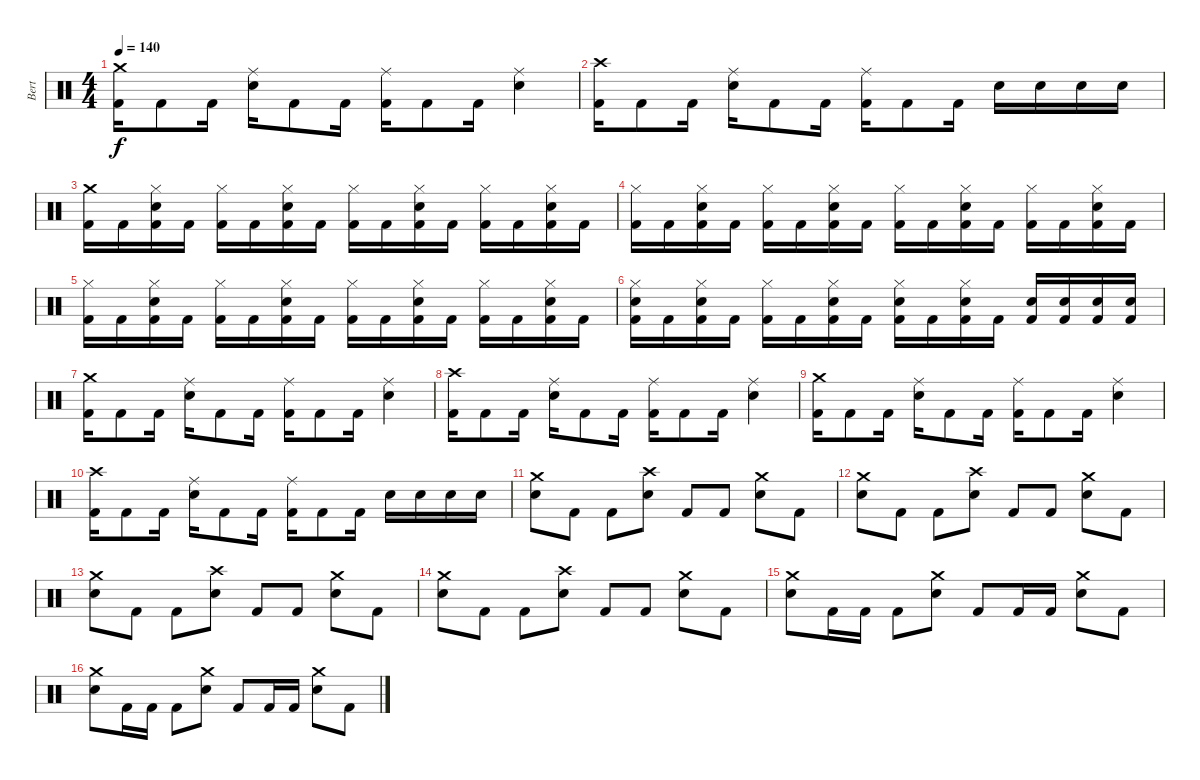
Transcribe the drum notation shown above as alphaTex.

\track ("Bert" "Bert") {instrument percussion}
\staff {score}
\articulation defaults
\ts (4 4)
\tempo 140
\clef neutral
\ks c
("Crash medium (hit)" "Kick (hit) 2").16{dy f} "Kick (hit) 2".8 "Kick (hit) 2".16 ("Ride (middle)" "Snare (hit) 2").16 "Kick (hit) 2".8 "Kick (hit) 2".16 ("Ride (middle)" "Kick (hit) 2").16 "Kick (hit) 2".8 "Kick (hit) 2".16 ("Ride (middle)" "Snare (hit) 2").4 |
("Crash high (hit)" "Kick (hit) 2").16 "Kick (hit) 2".8 "Kick (hit) 2".16 ("Ride (middle)" "Snare (hit) 2").16 "Kick (hit) 2".8 "Kick (hit) 2".16 ("Ride (middle)" "Kick (hit) 2").16 "Kick (hit) 2".8 "Kick (hit) 2".16 "Snare (hit) 2".16 "Snare (hit) 2".16 "Snare (hit) 2".16 "Snare (hit) 2".16 |
("Crash medium (hit)" "Kick (hit) 2").16 "Kick (hit) 2".16 ("Hi-Hat (closed)" "Snare (hit) 2" "Kick (hit) 2").16 "Kick (hit) 2".16 ("Hi-Hat (closed)" "Kick (hit) 2").16 "Kick (hit) 2".16 ("Hi-Hat (closed)" "Snare (hit) 2" "Kick (hit) 2").16 "Kick (hit) 2".16 ("Hi-Hat (closed)" "Kick (hit) 2").16 "Kick (hit) 2".16 ("Hi-Hat (closed)" "Snare (hit) 2" "Kick (hit) 2").16 "Kick (hit) 2".16 ("Hi-Hat (closed)" "Kick (hit) 2").16 "Kick (hit) 2".16 ("Hi-Hat (closed)" "Snare (hit) 2" "Kick (hit) 2").16 "Kick (hit) 2".16 |
("Hi-Hat (closed)" "Kick (hit) 2").16 "Kick (hit) 2".16 ("Hi-Hat (closed)" "Snare (hit) 2" "Kick (hit) 2").16 "Kick (hit) 2".16 ("Hi-Hat (closed)" "Kick (hit) 2").16 "Kick (hit) 2".16 ("Hi-Hat (closed)" "Snare (hit) 2" "Kick (hit) 2").16 "Kick (hit) 2".16 ("Hi-Hat (closed)" "Kick (hit) 2").16 "Kick (hit) 2".16 ("Hi-Hat (closed)" "Snare (hit) 2" "Kick (hit) 2").16 "Kick (hit) 2".16 ("Hi-Hat (closed)" "Kick (hit) 2").16 "Kick (hit) 2".16 ("Hi-Hat (closed)" "Snare (hit) 2" "Kick (hit) 2").16 "Kick (hit) 2".16 |
("Hi-Hat (closed)" "Kick (hit) 2").16 "Kick (hit) 2".16 ("Hi-Hat (closed)" "Snare (hit) 2" "Kick (hit) 2").16 "Kick (hit) 2".16 ("Hi-Hat (closed)" "Kick (hit) 2").16 "Kick (hit) 2".16 ("Hi-Hat (closed)" "Snare (hit) 2" "Kick (hit) 2").16 "Kick (hit) 2".16 ("Hi-Hat (closed)" "Kick (hit) 2").16 "Kick (hit) 2".16 ("Hi-Hat (closed)" "Snare (hit) 2" "Kick (hit) 2").16 "Kick (hit) 2".16 ("Hi-Hat (closed)" "Kick (hit) 2").16 "Kick (hit) 2".16 ("Hi-Hat (closed)" "Snare (hit) 2" "Kick (hit) 2").16 "Kick (hit) 2".16 |
("Hi-Hat (closed)" "Snare (hit) 2" "Kick (hit) 2").16 "Kick (hit) 2".16 ("Hi-Hat (closed)" "Snare (hit) 2" "Kick (hit) 2").16 "Kick (hit) 2".16 ("Hi-Hat (closed)" "Kick (hit) 2").16 "Kick (hit) 2".16 ("Hi-Hat (closed)" "Snare (hit) 2" "Kick (hit) 2").16 "Kick (hit) 2".16 ("Hi-Hat (closed)" "Snare (hit) 2" "Kick (hit) 2").16 "Kick (hit) 2".16 ("Hi-Hat (closed)" "Snare (hit) 2" "Kick (hit) 2").16 "Kick (hit) 2".16 ("Snare (hit) 2" "Kick (hit) 2").16 ("Snare (hit) 2" "Kick (hit) 2").16 ("Snare (hit) 2" "Kick (hit) 2").16 ("Snare (hit) 2" "Kick (hit) 2").16 |
("Crash medium (hit)" "Kick (hit) 2").16 "Kick (hit) 2".8 "Kick (hit) 2".16 ("Ride (middle)" "Snare (hit) 2").16 "Kick (hit) 2".8 "Kick (hit) 2".16 ("Ride (middle)" "Kick (hit) 2").16 "Kick (hit) 2".8 "Kick (hit) 2".16 ("Ride (middle)" "Snare (hit) 2").4 |
("Crash high (hit)" "Kick (hit) 2").16 "Kick (hit) 2".8 "Kick (hit) 2".16 ("Ride (middle)" "Snare (hit) 2").16 "Kick (hit) 2".8 "Kick (hit) 2".16 ("Ride (middle)" "Kick (hit) 2").16 "Kick (hit) 2".8 "Kick (hit) 2".16 ("Ride (middle)" "Snare (hit) 2").4 |
("Crash medium (hit)" "Kick (hit) 2").16 "Kick (hit) 2".8 "Kick (hit) 2".16 ("Ride (middle)" "Snare (hit) 2").16 "Kick (hit) 2".8 "Kick (hit) 2".16 ("Ride (middle)" "Kick (hit) 2").16 "Kick (hit) 2".8 "Kick (hit) 2".16 ("Ride (middle)" "Snare (hit) 2").4 |
("Crash high (hit)" "Kick (hit) 2").16 "Kick (hit) 2".8 "Kick (hit) 2".16 ("Ride (middle)" "Snare (hit) 2").16 "Kick (hit) 2".8 "Kick (hit) 2".16 ("Ride (middle)" "Kick (hit) 2").16 "Kick (hit) 2".8 "Kick (hit) 2".16 "Snare (hit) 2".16 "Snare (hit) 2".16 "Snare (hit) 2".16 "Snare (hit) 2".16 |
("Crash medium (hit)" "Snare (hit) 2").8 "Kick (hit) 2".8 "Kick (hit) 2".8 ("Crash high (hit)" "Snare (hit) 2").8 "Kick (hit) 2".8 "Kick (hit) 2".8 ("Crash medium (hit)" "Snare (hit) 2").8 "Kick (hit) 2".8 |
("Crash medium (hit)" "Snare (hit) 2").8 "Kick (hit) 2".8 "Kick (hit) 2".8 ("Crash high (hit)" "Snare (hit) 2").8 "Kick (hit) 2".8 "Kick (hit) 2".8 ("Crash medium (hit)" "Snare (hit) 2").8 "Kick (hit) 2".8 |
("Crash medium (hit)" "Snare (hit) 2").8 "Kick (hit) 2".8 "Kick (hit) 2".8 ("Crash high (hit)" "Snare (hit) 2").8 "Kick (hit) 2".8 "Kick (hit) 2".8 ("Crash medium (hit)" "Snare (hit) 2").8 "Kick (hit) 2".8 |
("Crash medium (hit)" "Snare (hit) 2").8 "Kick (hit) 2".8 "Kick (hit) 2".8 ("Crash high (hit)" "Snare (hit) 2").8 "Kick (hit) 2".8 "Kick (hit) 2".8 ("Crash medium (hit)" "Snare (hit) 2").8 "Kick (hit) 2".8 |
("Crash medium (hit)" "Snare (hit) 2").8 "Kick (hit) 2".16 "Kick (hit) 2".16 "Kick (hit) 2".8 ("Crash medium (hit)" "Snare (hit) 2").8 "Kick (hit) 2".8 "Kick (hit) 2".16 "Kick (hit) 2".16 ("Crash medium (hit)" "Snare (hit) 2").8 "Kick (hit) 2".8 |
("Crash medium (hit)" "Snare (hit) 2").8 "Kick (hit) 2".16 "Kick (hit) 2".16 "Kick (hit) 2".8 ("Crash medium (hit)" "Snare (hit) 2").8 "Kick (hit) 2".8 "Kick (hit) 2".16 "Kick (hit) 2".16 ("Crash medium (hit)" "Snare (hit) 2").8 "Kick (hit) 2".8
